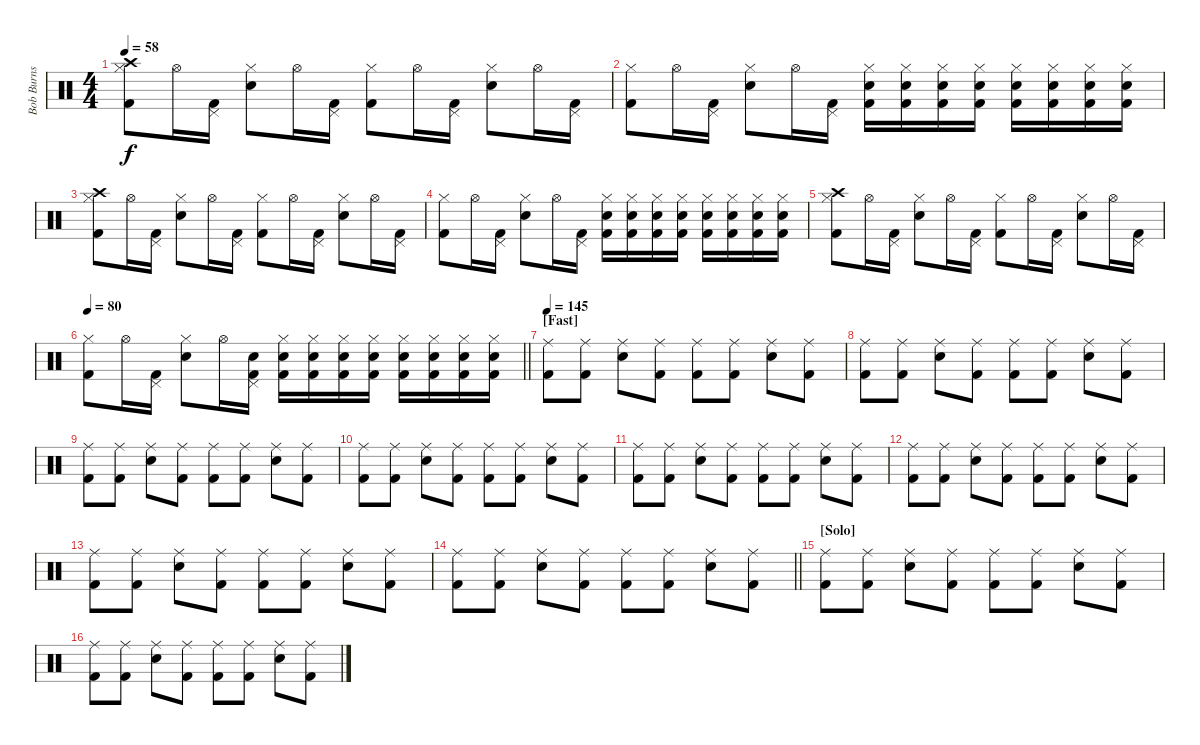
\track ("Bob Burns (Drums)" "Bob Burns ") {instrument percussion}
\staff {score}
\articulation defaults
\ts (4 4)
\tempo 58
\clef neutral
\ks c
("Hi-Hat (closed)" "Crash high (hit)" "Kick (hit) 2").8{dy f} "Hi-Hat (open)".16 ("Pedal Hi-Hat (hit)" "Kick (hit) 2").16 ("Hi-Hat (closed)" "Electric Snare (hit)").8 "Hi-Hat (open)".16 ("Pedal Hi-Hat (hit)" "Kick (hit) 2").16 ("Hi-Hat (closed)" "Kick (hit) 2").8 "Hi-Hat (open)".16 ("Pedal Hi-Hat (hit)" "Kick (hit) 2").16 ("Hi-Hat (closed)" "Electric Snare (hit)").8 "Hi-Hat (open)".16 ("Pedal Hi-Hat (hit)" "Kick (hit) 2").16 |
("Hi-Hat (closed)" "Kick (hit) 2").8 "Hi-Hat (open)".16 ("Pedal Hi-Hat (hit)" "Kick (hit) 2").16 ("Hi-Hat (closed)" "Electric Snare (hit)").8 "Hi-Hat (open)".16 ("Pedal Hi-Hat (hit)" "Kick (hit) 2").16 ("Hi-Hat (closed)" "Electric Snare (hit)" "Kick (hit) 2").16 ("Hi-Hat (closed)" "Electric Snare (hit)" "Kick (hit) 2").16 ("Hi-Hat (closed)" "Electric Snare (hit)" "Kick (hit) 2").16 ("Hi-Hat (closed)" "Electric Snare (hit)" "Kick (hit) 2").16 ("Hi-Hat (closed)" "Electric Snare (hit)" "Kick (hit) 2").16 ("Hi-Hat (closed)" "Electric Snare (hit)" "Kick (hit) 2").16 ("Hi-Hat (closed)" "Electric Snare (hit)" "Kick (hit) 2").16 ("Hi-Hat (closed)" "Electric Snare (hit)" "Kick (hit) 2").16 |
("Hi-Hat (closed)" "Crash high (hit)" "Kick (hit) 2").8 "Hi-Hat (open)".16 ("Pedal Hi-Hat (hit)" "Kick (hit) 2").16 ("Hi-Hat (closed)" "Electric Snare (hit)").8 "Hi-Hat (open)".16 ("Pedal Hi-Hat (hit)" "Kick (hit) 2").16 ("Hi-Hat (closed)" "Kick (hit) 2").8 "Hi-Hat (open)".16 ("Pedal Hi-Hat (hit)" "Kick (hit) 2").16 ("Hi-Hat (closed)" "Electric Snare (hit)").8 "Hi-Hat (open)".16 ("Pedal Hi-Hat (hit)" "Kick (hit) 2").16 |
("Hi-Hat (closed)" "Kick (hit) 2").8 "Hi-Hat (open)".16 ("Pedal Hi-Hat (hit)" "Kick (hit) 2").16 ("Hi-Hat (closed)" "Electric Snare (hit)").8 "Hi-Hat (open)".16 ("Pedal Hi-Hat (hit)" "Kick (hit) 2").16 ("Hi-Hat (closed)" "Electric Snare (hit)" "Kick (hit) 2").16 ("Hi-Hat (closed)" "Electric Snare (hit)" "Kick (hit) 2").16 ("Hi-Hat (closed)" "Electric Snare (hit)" "Kick (hit) 2").16 ("Hi-Hat (closed)" "Electric Snare (hit)" "Kick (hit) 2").16 ("Hi-Hat (closed)" "Electric Snare (hit)" "Kick (hit) 2").16 ("Hi-Hat (closed)" "Electric Snare (hit)" "Kick (hit) 2").16 ("Hi-Hat (closed)" "Electric Snare (hit)" "Kick (hit) 2").16 ("Hi-Hat (closed)" "Electric Snare (hit)" "Kick (hit) 2").16 |
("Hi-Hat (closed)" "Crash high (hit)" "Kick (hit) 2").8 "Hi-Hat (open)".16 ("Pedal Hi-Hat (hit)" "Kick (hit) 2").16 ("Hi-Hat (closed)" "Electric Snare (hit)").8 "Hi-Hat (open)".16 ("Pedal Hi-Hat (hit)" "Kick (hit) 2").16 ("Hi-Hat (closed)" "Kick (hit) 2").8 "Hi-Hat (open)".16 ("Pedal Hi-Hat (hit)" "Kick (hit) 2").16 ("Hi-Hat (closed)" "Electric Snare (hit)").8 "Hi-Hat (open)".16 ("Pedal Hi-Hat (hit)" "Kick (hit) 2").16 |
\tempo 80
\barLineRight lightlight
("Hi-Hat (closed)" "Kick (hit) 2").8 "Hi-Hat (open)".16 ("Pedal Hi-Hat (hit)" "Kick (hit) 2").16 ("Hi-Hat (closed)" "Electric Snare (hit)").8 "Hi-Hat (open)".16 ("Pedal Hi-Hat (hit)" "Electric Snare (hit)" "Kick (hit) 2").16 ("Hi-Hat (closed)" "Electric Snare (hit)" "Kick (hit) 2").16 ("Hi-Hat (closed)" "Electric Snare (hit)" "Kick (hit) 2").16 ("Hi-Hat (closed)" "Electric Snare (hit)" "Kick (hit) 2").16 ("Hi-Hat (closed)" "Electric Snare (hit)" "Kick (hit) 2").16 ("Hi-Hat (closed)" "Electric Snare (hit)" "Kick (hit) 2").16 ("Hi-Hat (closed)" "Electric Snare (hit)" "Kick (hit) 2").16 ("Hi-Hat (closed)" "Electric Snare (hit)" "Kick (hit) 2").16 ("Hi-Hat (closed)" "Electric Snare (hit)" "Kick (hit) 2").16 |
\section ("" "[Fast]")
\tempo 145
("Ride (middle)" "Kick (hit) 2").8 ("Ride (middle)" "Kick (hit) 2").8 ("Ride (middle)" "Electric Snare (hit)").8 ("Ride (middle)" "Kick (hit) 2").8 ("Ride (middle)" "Kick (hit) 2").8 ("Ride (middle)" "Kick (hit) 2").8 ("Ride (middle)" "Electric Snare (hit)").8 ("Ride (middle)" "Kick (hit) 2").8 |
("Ride (middle)" "Kick (hit) 2").8 ("Ride (middle)" "Kick (hit) 2").8 ("Ride (middle)" "Electric Snare (hit)").8 ("Ride (middle)" "Kick (hit) 2").8 ("Ride (middle)" "Kick (hit) 2").8 ("Ride (middle)" "Kick (hit) 2").8 ("Ride (middle)" "Electric Snare (hit)").8 ("Ride (middle)" "Kick (hit) 2").8 |
("Ride (middle)" "Kick (hit) 2").8 ("Ride (middle)" "Kick (hit) 2").8 ("Ride (middle)" "Electric Snare (hit)").8 ("Ride (middle)" "Kick (hit) 2").8 ("Ride (middle)" "Kick (hit) 2").8 ("Ride (middle)" "Kick (hit) 2").8 ("Ride (middle)" "Electric Snare (hit)").8 ("Ride (middle)" "Kick (hit) 2").8 |
("Ride (middle)" "Kick (hit) 2").8 ("Ride (middle)" "Kick (hit) 2").8 ("Ride (middle)" "Electric Snare (hit)").8 ("Ride (middle)" "Kick (hit) 2").8 ("Ride (middle)" "Kick (hit) 2").8 ("Ride (middle)" "Kick (hit) 2").8 ("Ride (middle)" "Electric Snare (hit)").8 ("Ride (middle)" "Kick (hit) 2").8 |
("Ride (middle)" "Kick (hit) 2").8 ("Ride (middle)" "Kick (hit) 2").8 ("Ride (middle)" "Electric Snare (hit)").8 ("Ride (middle)" "Kick (hit) 2").8 ("Ride (middle)" "Kick (hit) 2").8 ("Ride (middle)" "Kick (hit) 2").8 ("Ride (middle)" "Electric Snare (hit)").8 ("Ride (middle)" "Kick (hit) 2").8 |
("Ride (middle)" "Kick (hit) 2").8 ("Ride (middle)" "Kick (hit) 2").8 ("Ride (middle)" "Electric Snare (hit)").8 ("Ride (middle)" "Kick (hit) 2").8 ("Ride (middle)" "Kick (hit) 2").8 ("Ride (middle)" "Kick (hit) 2").8 ("Ride (middle)" "Electric Snare (hit)").8 ("Ride (middle)" "Kick (hit) 2").8 |
("Ride (middle)" "Kick (hit) 2").8 ("Ride (middle)" "Kick (hit) 2").8 ("Ride (middle)" "Electric Snare (hit)").8 ("Ride (middle)" "Kick (hit) 2").8 ("Ride (middle)" "Kick (hit) 2").8 ("Ride (middle)" "Kick (hit) 2").8 ("Ride (middle)" "Electric Snare (hit)").8 ("Ride (middle)" "Kick (hit) 2").8 |
\barLineRight lightlight
("Ride (middle)" "Kick (hit) 2").8 ("Ride (middle)" "Kick (hit) 2").8 ("Ride (middle)" "Electric Snare (hit)").8 ("Ride (middle)" "Kick (hit) 2").8 ("Ride (middle)" "Kick (hit) 2").8 ("Ride (middle)" "Kick (hit) 2").8 ("Ride (middle)" "Electric Snare (hit)").8 ("Ride (middle)" "Kick (hit) 2").8 |
\section ("" "[Solo]")
("Ride (middle)" "Kick (hit) 2").8 ("Ride (middle)" "Kick (hit) 2").8 ("Ride (middle)" "Electric Snare (hit)").8 ("Ride (middle)" "Kick (hit) 2").8 ("Ride (middle)" "Kick (hit) 2").8 ("Ride (middle)" "Kick (hit) 2").8 ("Ride (middle)" "Electric Snare (hit)").8 ("Ride (middle)" "Kick (hit) 2").8 |
("Ride (middle)" "Kick (hit) 2").8 ("Ride (middle)" "Kick (hit) 2").8 ("Ride (middle)" "Electric Snare (hit)").8 ("Ride (middle)" "Kick (hit) 2").8 ("Ride (middle)" "Kick (hit) 2").8 ("Ride (middle)" "Kick (hit) 2").8 ("Ride (middle)" "Electric Snare (hit)").8 ("Ride (middle)" "Kick (hit) 2").8
